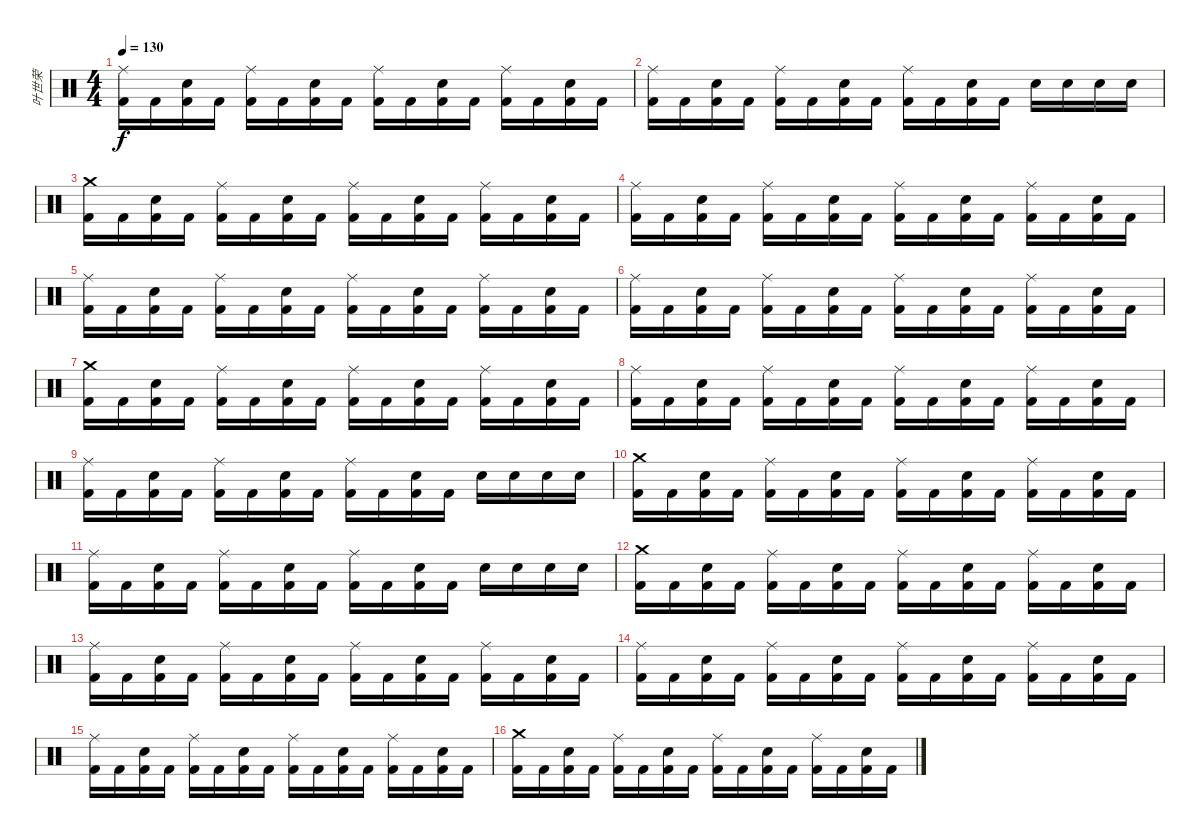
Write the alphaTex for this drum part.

\track ("叶世荣" "叶世荣") {instrument percussion}
\staff {score}
\articulation defaults
\ts (4 4)
\tempo 130
\clef neutral
\ks c
("Ride (middle)" "Kick (hit) 2").16{dy f} "Kick (hit) 2".16 ("Snare (hit) 2" "Kick (hit) 2").16 "Kick (hit) 2".16 ("Ride (middle)" "Kick (hit) 2").16 "Kick (hit) 2".16 ("Snare (hit) 2" "Kick (hit) 2").16 "Kick (hit) 2".16 ("Ride (middle)" "Kick (hit) 2").16 "Kick (hit) 2".16 ("Snare (hit) 2" "Kick (hit) 2").16 "Kick (hit) 2".16 ("Ride (middle)" "Kick (hit) 2").16 "Kick (hit) 2".16 ("Snare (hit) 2" "Kick (hit) 2").16 "Kick (hit) 2".16 |
("Ride (middle)" "Kick (hit) 2").16 "Kick (hit) 2".16 ("Snare (hit) 2" "Kick (hit) 2").16 "Kick (hit) 2".16 ("Ride (middle)" "Kick (hit) 2").16 "Kick (hit) 2".16 ("Snare (hit) 2" "Kick (hit) 2").16 "Kick (hit) 2".16 ("Ride (middle)" "Kick (hit) 2").16 "Kick (hit) 2".16 ("Snare (hit) 2" "Kick (hit) 2").16 "Kick (hit) 2".16 "Snare (hit) 2".16 "Snare (hit) 2".16 "Snare (hit) 2".16 "Snare (hit) 2".16 |
("Crash medium (hit)" "Kick (hit) 2").16 "Kick (hit) 2".16 ("Snare (hit) 2" "Kick (hit) 2").16 "Kick (hit) 2".16 ("Ride (middle)" "Kick (hit) 2").16 "Kick (hit) 2".16 ("Snare (hit) 2" "Kick (hit) 2").16 "Kick (hit) 2".16 ("Ride (middle)" "Kick (hit) 2").16 "Kick (hit) 2".16 ("Snare (hit) 2" "Kick (hit) 2").16 "Kick (hit) 2".16 ("Ride (middle)" "Kick (hit) 2").16 "Kick (hit) 2".16 ("Snare (hit) 2" "Kick (hit) 2").16 "Kick (hit) 2".16 |
("Ride (middle)" "Kick (hit) 2").16 "Kick (hit) 2".16 ("Snare (hit) 2" "Kick (hit) 2").16 "Kick (hit) 2".16 ("Ride (middle)" "Kick (hit) 2").16 "Kick (hit) 2".16 ("Snare (hit) 2" "Kick (hit) 2").16 "Kick (hit) 2".16 ("Ride (middle)" "Kick (hit) 2").16 "Kick (hit) 2".16 ("Snare (hit) 2" "Kick (hit) 2").16 "Kick (hit) 2".16 ("Ride (middle)" "Kick (hit) 2").16 "Kick (hit) 2".16 ("Snare (hit) 2" "Kick (hit) 2").16 "Kick (hit) 2".16 |
("Ride (middle)" "Kick (hit) 2").16 "Kick (hit) 2".16 ("Snare (hit) 2" "Kick (hit) 2").16 "Kick (hit) 2".16 ("Ride (middle)" "Kick (hit) 2").16 "Kick (hit) 2".16 ("Snare (hit) 2" "Kick (hit) 2").16 "Kick (hit) 2".16 ("Ride (middle)" "Kick (hit) 2").16 "Kick (hit) 2".16 ("Snare (hit) 2" "Kick (hit) 2").16 "Kick (hit) 2".16 ("Ride (middle)" "Kick (hit) 2").16 "Kick (hit) 2".16 ("Snare (hit) 2" "Kick (hit) 2").16 "Kick (hit) 2".16 |
("Ride (middle)" "Kick (hit) 2").16 "Kick (hit) 2".16 ("Snare (hit) 2" "Kick (hit) 2").16 "Kick (hit) 2".16 ("Ride (middle)" "Kick (hit) 2").16 "Kick (hit) 2".16 ("Snare (hit) 2" "Kick (hit) 2").16 "Kick (hit) 2".16 ("Ride (middle)" "Kick (hit) 2").16 "Kick (hit) 2".16 ("Snare (hit) 2" "Kick (hit) 2").16 "Kick (hit) 2".16 ("Ride (middle)" "Kick (hit) 2").16 "Kick (hit) 2".16 ("Snare (hit) 2" "Kick (hit) 2").16 "Kick (hit) 2".16 |
("Crash medium (hit)" "Kick (hit) 2").16 "Kick (hit) 2".16 ("Snare (hit) 2" "Kick (hit) 2").16 "Kick (hit) 2".16 ("Ride (middle)" "Kick (hit) 2").16 "Kick (hit) 2".16 ("Snare (hit) 2" "Kick (hit) 2").16 "Kick (hit) 2".16 ("Ride (middle)" "Kick (hit) 2").16 "Kick (hit) 2".16 ("Snare (hit) 2" "Kick (hit) 2").16 "Kick (hit) 2".16 ("Ride (middle)" "Kick (hit) 2").16 "Kick (hit) 2".16 ("Snare (hit) 2" "Kick (hit) 2").16 "Kick (hit) 2".16 |
("Ride (middle)" "Kick (hit) 2").16 "Kick (hit) 2".16 ("Snare (hit) 2" "Kick (hit) 2").16 "Kick (hit) 2".16 ("Ride (middle)" "Kick (hit) 2").16 "Kick (hit) 2".16 ("Snare (hit) 2" "Kick (hit) 2").16 "Kick (hit) 2".16 ("Ride (middle)" "Kick (hit) 2").16 "Kick (hit) 2".16 ("Snare (hit) 2" "Kick (hit) 2").16 "Kick (hit) 2".16 ("Ride (middle)" "Kick (hit) 2").16 "Kick (hit) 2".16 ("Snare (hit) 2" "Kick (hit) 2").16 "Kick (hit) 2".16 |
("Ride (middle)" "Kick (hit) 2").16 "Kick (hit) 2".16 ("Snare (hit) 2" "Kick (hit) 2").16 "Kick (hit) 2".16 ("Ride (middle)" "Kick (hit) 2").16 "Kick (hit) 2".16 ("Snare (hit) 2" "Kick (hit) 2").16 "Kick (hit) 2".16 ("Ride (middle)" "Kick (hit) 2").16 "Kick (hit) 2".16 ("Snare (hit) 2" "Kick (hit) 2").16 "Kick (hit) 2".16 "Snare (hit) 2".16 "Snare (hit) 2".16 "Snare (hit) 2".16 "Snare (hit) 2".16 |
("Crash medium (hit)" "Kick (hit) 2").16 "Kick (hit) 2".16 ("Snare (hit) 2" "Kick (hit) 2").16 "Kick (hit) 2".16 ("Ride (middle)" "Kick (hit) 2").16 "Kick (hit) 2".16 ("Snare (hit) 2" "Kick (hit) 2").16 "Kick (hit) 2".16 ("Ride (middle)" "Kick (hit) 2").16 "Kick (hit) 2".16 ("Snare (hit) 2" "Kick (hit) 2").16 "Kick (hit) 2".16 ("Ride (middle)" "Kick (hit) 2").16 "Kick (hit) 2".16 ("Snare (hit) 2" "Kick (hit) 2").16 "Kick (hit) 2".16 |
("Ride (middle)" "Kick (hit) 2").16 "Kick (hit) 2".16 ("Snare (hit) 2" "Kick (hit) 2").16 "Kick (hit) 2".16 ("Ride (middle)" "Kick (hit) 2").16 "Kick (hit) 2".16 ("Snare (hit) 2" "Kick (hit) 2").16 "Kick (hit) 2".16 ("Ride (middle)" "Kick (hit) 2").16 "Kick (hit) 2".16 ("Snare (hit) 2" "Kick (hit) 2").16 "Kick (hit) 2".16 "Snare (hit) 2".16 "Snare (hit) 2".16 "Snare (hit) 2".16 "Snare (hit) 2".16 |
("Crash medium (hit)" "Kick (hit) 2").16 "Kick (hit) 2".16 ("Snare (hit) 2" "Kick (hit) 2").16 "Kick (hit) 2".16 ("Ride (middle)" "Kick (hit) 2").16 "Kick (hit) 2".16 ("Snare (hit) 2" "Kick (hit) 2").16 "Kick (hit) 2".16 ("Ride (middle)" "Kick (hit) 2").16 "Kick (hit) 2".16 ("Snare (hit) 2" "Kick (hit) 2").16 "Kick (hit) 2".16 ("Ride (middle)" "Kick (hit) 2").16 "Kick (hit) 2".16 ("Snare (hit) 2" "Kick (hit) 2").16 "Kick (hit) 2".16 |
("Ride (middle)" "Kick (hit) 2").16 "Kick (hit) 2".16 ("Snare (hit) 2" "Kick (hit) 2").16 "Kick (hit) 2".16 ("Ride (middle)" "Kick (hit) 2").16 "Kick (hit) 2".16 ("Snare (hit) 2" "Kick (hit) 2").16 "Kick (hit) 2".16 ("Ride (middle)" "Kick (hit) 2").16 "Kick (hit) 2".16 ("Snare (hit) 2" "Kick (hit) 2").16 "Kick (hit) 2".16 ("Ride (middle)" "Kick (hit) 2").16 "Kick (hit) 2".16 ("Snare (hit) 2" "Kick (hit) 2").16 "Kick (hit) 2".16 |
("Ride (middle)" "Kick (hit) 2").16 "Kick (hit) 2".16 ("Snare (hit) 2" "Kick (hit) 2").16 "Kick (hit) 2".16 ("Ride (middle)" "Kick (hit) 2").16 "Kick (hit) 2".16 ("Snare (hit) 2" "Kick (hit) 2").16 "Kick (hit) 2".16 ("Ride (middle)" "Kick (hit) 2").16 "Kick (hit) 2".16 ("Snare (hit) 2" "Kick (hit) 2").16 "Kick (hit) 2".16 ("Ride (middle)" "Kick (hit) 2").16 "Kick (hit) 2".16 ("Snare (hit) 2" "Kick (hit) 2").16 "Kick (hit) 2".16 |
("Ride (middle)" "Kick (hit) 2").16 "Kick (hit) 2".16 ("Snare (hit) 2" "Kick (hit) 2").16 "Kick (hit) 2".16 ("Ride (middle)" "Kick (hit) 2").16 "Kick (hit) 2".16 ("Snare (hit) 2" "Kick (hit) 2").16 "Kick (hit) 2".16 ("Ride (middle)" "Kick (hit) 2").16 "Kick (hit) 2".16 ("Snare (hit) 2" "Kick (hit) 2").16 "Kick (hit) 2".16 ("Ride (middle)" "Kick (hit) 2").16 "Kick (hit) 2".16 ("Snare (hit) 2" "Kick (hit) 2").16 "Kick (hit) 2".16 |
("Crash medium (hit)" "Kick (hit) 2").16 "Kick (hit) 2".16 ("Snare (hit) 2" "Kick (hit) 2").16 "Kick (hit) 2".16 ("Ride (middle)" "Kick (hit) 2").16 "Kick (hit) 2".16 ("Snare (hit) 2" "Kick (hit) 2").16 "Kick (hit) 2".16 ("Ride (middle)" "Kick (hit) 2").16 "Kick (hit) 2".16 ("Snare (hit) 2" "Kick (hit) 2").16 "Kick (hit) 2".16 ("Ride (middle)" "Kick (hit) 2").16 "Kick (hit) 2".16 ("Snare (hit) 2" "Kick (hit) 2").16 "Kick (hit) 2".16
